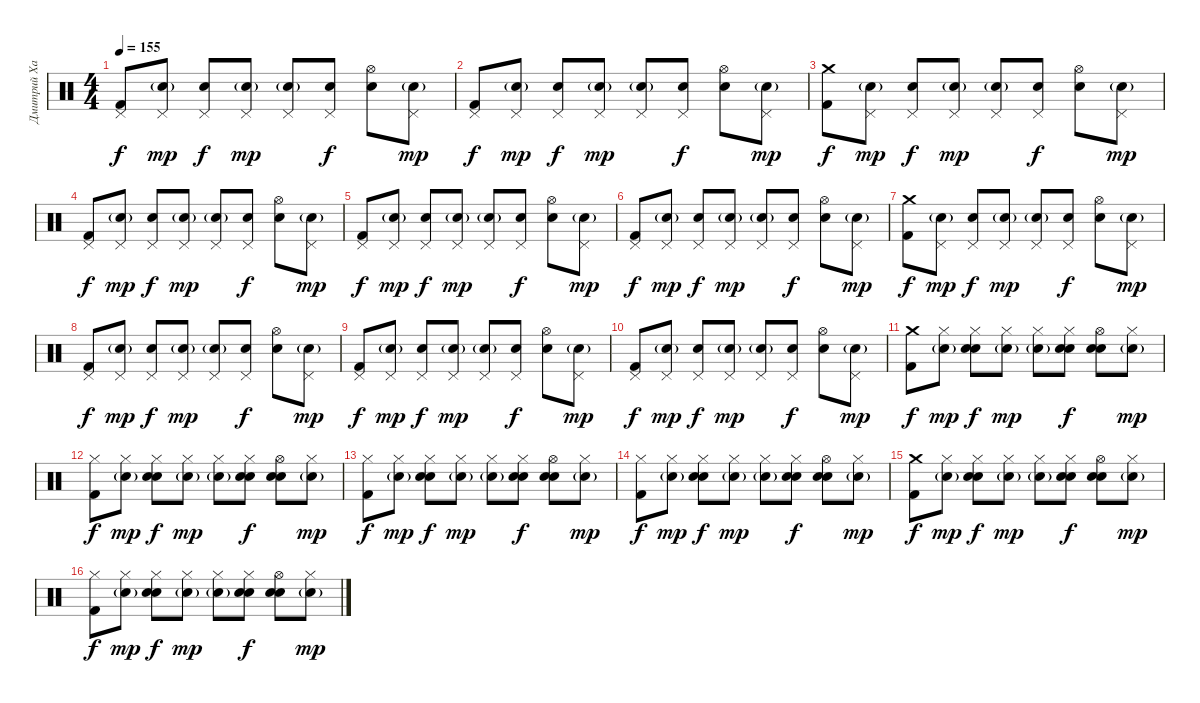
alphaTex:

\track ("Дмитрий Хакимов" "Дмитрий Ха") {instrument percussion}
\staff {score}
\articulation defaults
\ts (4 4)
\tempo 155
\clef neutral
\ks c
("Pedal Hi-Hat (hit)" "Kick (hit) 2").8{dy f} ("Pedal Hi-Hat (hit)" "Electric Snare (hit)"{g}).8{dy mp} ("Pedal Hi-Hat (hit)" "Electric Snare (hit)").8{dy f} ("Pedal Hi-Hat (hit)" "Electric Snare (hit)"{g}).8{dy mp} ("Pedal Hi-Hat (hit)" "Electric Snare (hit)"{g}).8 ("Pedal Hi-Hat (hit)" "Electric Snare (hit)").8{dy f} ("Hi-Hat (open)" "Electric Snare (hit)").8 ("Pedal Hi-Hat (hit)" "Electric Snare (hit)"{g}).8{dy mp} |
("Pedal Hi-Hat (hit)" "Kick (hit) 2").8{dy f} ("Pedal Hi-Hat (hit)" "Electric Snare (hit)"{g}).8{dy mp} ("Pedal Hi-Hat (hit)" "Electric Snare (hit)").8{dy f} ("Pedal Hi-Hat (hit)" "Electric Snare (hit)"{g}).8{dy mp} ("Pedal Hi-Hat (hit)" "Electric Snare (hit)"{g}).8 ("Pedal Hi-Hat (hit)" "Electric Snare (hit)").8{dy f} ("Hi-Hat (open)" "Electric Snare (hit)").8 ("Pedal Hi-Hat (hit)" "Electric Snare (hit)"{g}).8{dy mp} |
("Crash medium (hit)" "Kick (hit) 2").8{dy f} ("Pedal Hi-Hat (hit)" "Electric Snare (hit)"{g}).8{dy mp} ("Pedal Hi-Hat (hit)" "Electric Snare (hit)").8{dy f} ("Pedal Hi-Hat (hit)" "Electric Snare (hit)"{g}).8{dy mp} ("Pedal Hi-Hat (hit)" "Electric Snare (hit)"{g}).8 ("Pedal Hi-Hat (hit)" "Electric Snare (hit)").8{dy f} ("Hi-Hat (open)" "Electric Snare (hit)").8 ("Pedal Hi-Hat (hit)" "Electric Snare (hit)"{g}).8{dy mp} |
("Pedal Hi-Hat (hit)" "Kick (hit) 2").8{dy f} ("Pedal Hi-Hat (hit)" "Electric Snare (hit)"{g}).8{dy mp} ("Pedal Hi-Hat (hit)" "Electric Snare (hit)").8{dy f} ("Pedal Hi-Hat (hit)" "Electric Snare (hit)"{g}).8{dy mp} ("Pedal Hi-Hat (hit)" "Electric Snare (hit)"{g}).8 ("Pedal Hi-Hat (hit)" "Electric Snare (hit)").8{dy f} ("Hi-Hat (open)" "Electric Snare (hit)").8 ("Pedal Hi-Hat (hit)" "Electric Snare (hit)"{g}).8{dy mp} |
("Pedal Hi-Hat (hit)" "Kick (hit) 2").8{dy f} ("Pedal Hi-Hat (hit)" "Electric Snare (hit)"{g}).8{dy mp} ("Pedal Hi-Hat (hit)" "Electric Snare (hit)").8{dy f} ("Pedal Hi-Hat (hit)" "Electric Snare (hit)"{g}).8{dy mp} ("Pedal Hi-Hat (hit)" "Electric Snare (hit)"{g}).8 ("Pedal Hi-Hat (hit)" "Electric Snare (hit)").8{dy f} ("Hi-Hat (open)" "Electric Snare (hit)").8 ("Pedal Hi-Hat (hit)" "Electric Snare (hit)"{g}).8{dy mp} |
("Pedal Hi-Hat (hit)" "Kick (hit) 2").8{dy f} ("Pedal Hi-Hat (hit)" "Electric Snare (hit)"{g}).8{dy mp} ("Pedal Hi-Hat (hit)" "Electric Snare (hit)").8{dy f} ("Pedal Hi-Hat (hit)" "Electric Snare (hit)"{g}).8{dy mp} ("Pedal Hi-Hat (hit)" "Electric Snare (hit)"{g}).8 ("Pedal Hi-Hat (hit)" "Electric Snare (hit)").8{dy f} ("Hi-Hat (open)" "Electric Snare (hit)").8 ("Pedal Hi-Hat (hit)" "Electric Snare (hit)"{g}).8{dy mp} |
("Crash medium (hit)" "Kick (hit) 2").8{dy f} ("Pedal Hi-Hat (hit)" "Electric Snare (hit)"{g}).8{dy mp} ("Pedal Hi-Hat (hit)" "Electric Snare (hit)").8{dy f} ("Pedal Hi-Hat (hit)" "Electric Snare (hit)"{g}).8{dy mp} ("Pedal Hi-Hat (hit)" "Electric Snare (hit)"{g}).8 ("Pedal Hi-Hat (hit)" "Electric Snare (hit)").8{dy f} ("Hi-Hat (open)" "Electric Snare (hit)").8 ("Pedal Hi-Hat (hit)" "Electric Snare (hit)"{g}).8{dy mp} |
("Pedal Hi-Hat (hit)" "Kick (hit) 2").8{dy f} ("Pedal Hi-Hat (hit)" "Electric Snare (hit)"{g}).8{dy mp} ("Pedal Hi-Hat (hit)" "Electric Snare (hit)").8{dy f} ("Pedal Hi-Hat (hit)" "Electric Snare (hit)"{g}).8{dy mp} ("Pedal Hi-Hat (hit)" "Electric Snare (hit)"{g}).8 ("Pedal Hi-Hat (hit)" "Electric Snare (hit)").8{dy f} ("Hi-Hat (open)" "Electric Snare (hit)").8 ("Pedal Hi-Hat (hit)" "Electric Snare (hit)"{g}).8{dy mp} |
("Pedal Hi-Hat (hit)" "Kick (hit) 2").8{dy f} ("Pedal Hi-Hat (hit)" "Electric Snare (hit)"{g}).8{dy mp} ("Pedal Hi-Hat (hit)" "Electric Snare (hit)").8{dy f} ("Pedal Hi-Hat (hit)" "Electric Snare (hit)"{g}).8{dy mp} ("Pedal Hi-Hat (hit)" "Electric Snare (hit)"{g}).8 ("Pedal Hi-Hat (hit)" "Electric Snare (hit)").8{dy f} ("Hi-Hat (open)" "Electric Snare (hit)").8 ("Pedal Hi-Hat (hit)" "Electric Snare (hit)"{g}).8{dy mp} |
("Pedal Hi-Hat (hit)" "Kick (hit) 2").8{dy f} ("Pedal Hi-Hat (hit)" "Electric Snare (hit)"{g}).8{dy mp} ("Pedal Hi-Hat (hit)" "Electric Snare (hit)").8{dy f} ("Pedal Hi-Hat (hit)" "Electric Snare (hit)"{g}).8{dy mp} ("Pedal Hi-Hat (hit)" "Electric Snare (hit)"{g}).8 ("Pedal Hi-Hat (hit)" "Electric Snare (hit)").8{dy f} ("Hi-Hat (open)" "Electric Snare (hit)").8 ("Pedal Hi-Hat (hit)" "Electric Snare (hit)"{g}).8{dy mp} |
("Crash medium (hit)" "Kick (hit) 2").8{dy f} ("Hi-Hat (closed)" "Electric Snare (hit)"{g}).8{dy mp} ("Hi-Hat (closed)" "Electric Snare (hit)" "Hand Clap (hit)").8{dy f} ("Hi-Hat (closed)" "Electric Snare (hit)"{g}).8{dy mp} ("Hi-Hat (closed)" "Electric Snare (hit)"{g}).8 ("Hi-Hat (closed)" "Electric Snare (hit)" "Hand Clap (hit)").8{dy f} ("Hi-Hat (open)" "Electric Snare (hit)" "Hand Clap (hit)").8 ("Hi-Hat (closed)" "Electric Snare (hit)"{g}).8{dy mp} |
("Hi-Hat (closed)" "Kick (hit) 2").8{dy f} ("Hi-Hat (closed)" "Electric Snare (hit)"{g}).8{dy mp} ("Hi-Hat (closed)" "Electric Snare (hit)" "Hand Clap (hit)").8{dy f} ("Hi-Hat (closed)" "Electric Snare (hit)"{g}).8{dy mp} ("Hi-Hat (closed)" "Electric Snare (hit)"{g}).8 ("Hi-Hat (closed)" "Electric Snare (hit)" "Hand Clap (hit)").8{dy f} ("Hi-Hat (open)" "Electric Snare (hit)" "Hand Clap (hit)").8 ("Hi-Hat (closed)" "Electric Snare (hit)"{g}).8{dy mp} |
("Hi-Hat (closed)" "Kick (hit) 2").8{dy f} ("Hi-Hat (closed)" "Electric Snare (hit)"{g}).8{dy mp} ("Hi-Hat (closed)" "Electric Snare (hit)" "Hand Clap (hit)").8{dy f} ("Hi-Hat (closed)" "Electric Snare (hit)"{g}).8{dy mp} ("Hi-Hat (closed)" "Electric Snare (hit)"{g}).8 ("Hi-Hat (closed)" "Electric Snare (hit)" "Hand Clap (hit)").8{dy f} ("Hi-Hat (open)" "Electric Snare (hit)" "Hand Clap (hit)").8 ("Hi-Hat (closed)" "Electric Snare (hit)"{g}).8{dy mp} |
("Hi-Hat (closed)" "Kick (hit) 2").8{dy f} ("Hi-Hat (closed)" "Electric Snare (hit)"{g}).8{dy mp} ("Hi-Hat (closed)" "Electric Snare (hit)" "Hand Clap (hit)").8{dy f} ("Hi-Hat (closed)" "Electric Snare (hit)"{g}).8{dy mp} ("Hi-Hat (closed)" "Electric Snare (hit)"{g}).8 ("Hi-Hat (closed)" "Electric Snare (hit)" "Hand Clap (hit)").8{dy f} ("Hi-Hat (open)" "Electric Snare (hit)" "Hand Clap (hit)").8 ("Hi-Hat (closed)" "Electric Snare (hit)"{g}).8{dy mp} |
("Crash medium (hit)" "Kick (hit) 2").8{dy f} ("Hi-Hat (closed)" "Electric Snare (hit)"{g}).8{dy mp} ("Hi-Hat (closed)" "Electric Snare (hit)" "Hand Clap (hit)").8{dy f} ("Hi-Hat (closed)" "Electric Snare (hit)"{g}).8{dy mp} ("Hi-Hat (closed)" "Electric Snare (hit)"{g}).8 ("Hi-Hat (closed)" "Electric Snare (hit)" "Hand Clap (hit)").8{dy f} ("Hi-Hat (open)" "Electric Snare (hit)" "Hand Clap (hit)").8 ("Hi-Hat (closed)" "Electric Snare (hit)"{g}).8{dy mp} |
("Hi-Hat (closed)" "Kick (hit) 2").8{dy f} ("Hi-Hat (closed)" "Electric Snare (hit)"{g}).8{dy mp} ("Hi-Hat (closed)" "Electric Snare (hit)" "Hand Clap (hit)").8{dy f} ("Hi-Hat (closed)" "Electric Snare (hit)"{g}).8{dy mp} ("Hi-Hat (closed)" "Electric Snare (hit)"{g}).8 ("Hi-Hat (closed)" "Electric Snare (hit)" "Hand Clap (hit)").8{dy f} ("Hi-Hat (open)" "Electric Snare (hit)" "Hand Clap (hit)").8 ("Hi-Hat (closed)" "Electric Snare (hit)"{g}).8{dy mp}
